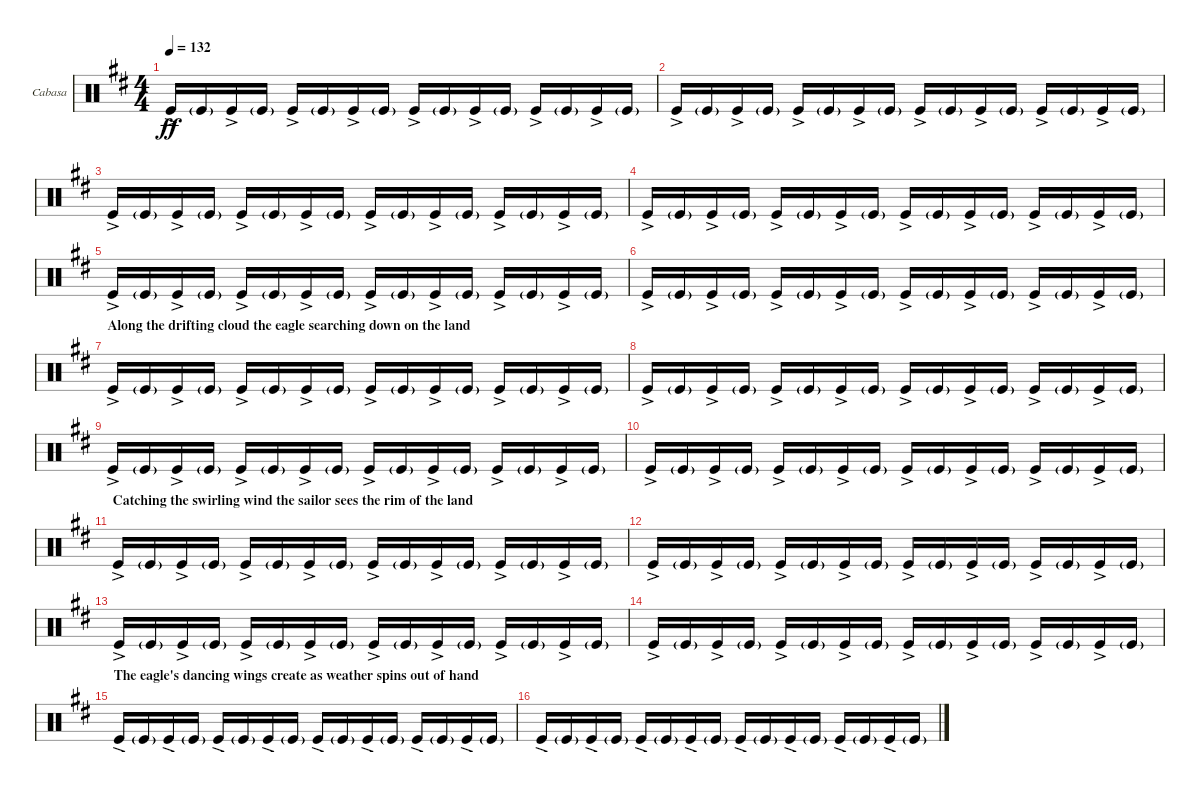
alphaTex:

\bracketExtendMode groupsimilarinstruments
\firstSystemTrackNameOrientation horizontal
\otherSystemsTrackNameOrientation horizontal
\track ("Cabasa" "Cabasa") {instrument percussion}
\staff {score}
\articulation defaults
\ts (4 4)
\tempo 132
\clef neutral
\ks bminor "Kick (hit)"{ac}.16{dy ff} "Kick (hit)"{g}.16 "Kick (hit)"{ac}.16 "Kick (hit)"{g}.16 "Kick (hit)"{ac}.16 "Kick (hit)"{g}.16 "Kick (hit)"{ac}.16 "Kick (hit)"{g}.16 "Kick (hit)"{ac}.16 "Kick (hit)"{g}.16 "Kick (hit)"{ac}.16 "Kick (hit)"{g}.16 "Kick (hit)"{ac}.16 "Kick (hit)"{g}.16 "Kick (hit)"{ac}.16 "Kick (hit)"{g}.16
|
"Kick (hit)"{ac}.16 "Kick (hit)"{g}.16 "Kick (hit)"{ac}.16 "Kick (hit)"{g}.16 "Kick (hit)"{ac}.16 "Kick (hit)"{g}.16 "Kick (hit)"{ac}.16 "Kick (hit)"{g}.16 "Kick (hit)"{ac}.16 "Kick (hit)"{g}.16 "Kick (hit)"{ac}.16 "Kick (hit)"{g}.16 "Kick (hit)"{ac}.16 "Kick (hit)"{g}.16 "Kick (hit)"{ac}.16 "Kick (hit)"{g}.16 |
"Kick (hit)"{ac}.16 "Kick (hit)"{g}.16 "Kick (hit)"{ac}.16 "Kick (hit)"{g}.16 "Kick (hit)"{ac}.16 "Kick (hit)"{g}.16 "Kick (hit)"{ac}.16 "Kick (hit)"{g}.16 "Kick (hit)"{ac}.16 "Kick (hit)"{g}.16 "Kick (hit)"{ac}.16 "Kick (hit)"{g}.16 "Kick (hit)"{ac}.16 "Kick (hit)"{g}.16 "Kick (hit)"{ac}.16 "Kick (hit)"{g}.16 |
"Kick (hit)"{ac}.16 "Kick (hit)"{g}.16 "Kick (hit)"{ac}.16 "Kick (hit)"{g}.16 "Kick (hit)"{ac}.16 "Kick (hit)"{g}.16 "Kick (hit)"{ac}.16 "Kick (hit)"{g}.16 "Kick (hit)"{ac}.16 "Kick (hit)"{g}.16 "Kick (hit)"{ac}.16 "Kick (hit)"{g}.16 "Kick (hit)"{ac}.16 "Kick (hit)"{g}.16 "Kick (hit)"{ac}.16 "Kick (hit)"{g}.16 |
"Kick (hit)"{ac}.16 "Kick (hit)"{g}.16 "Kick (hit)"{ac}.16 "Kick (hit)"{g}.16 "Kick (hit)"{ac}.16 "Kick (hit)"{g}.16 "Kick (hit)"{ac}.16 "Kick (hit)"{g}.16 "Kick (hit)"{ac}.16 "Kick (hit)"{g}.16 "Kick (hit)"{ac}.16 "Kick (hit)"{g}.16 "Kick (hit)"{ac}.16 "Kick (hit)"{g}.16 "Kick (hit)"{ac}.16 "Kick (hit)"{g}.16 |
"Kick (hit)"{ac}.16 "Kick (hit)"{g}.16 "Kick (hit)"{ac}.16 "Kick (hit)"{g}.16 "Kick (hit)"{ac}.16 "Kick (hit)"{g}.16 "Kick (hit)"{ac}.16 "Kick (hit)"{g}.16 "Kick (hit)"{ac}.16 "Kick (hit)"{g}.16 "Kick (hit)"{ac}.16 "Kick (hit)"{g}.16 "Kick (hit)"{ac}.16 "Kick (hit)"{g}.16 "Kick (hit)"{ac}.16 "Kick (hit)"{g}.16 |
\section ("" "Along the drifting cloud the eagle searching down on the land")
"Kick (hit)"{ac}.16 "Kick (hit)"{g}.16 "Kick (hit)"{ac}.16 "Kick (hit)"{g}.16 "Kick (hit)"{ac}.16 "Kick (hit)"{g}.16 "Kick (hit)"{ac}.16 "Kick (hit)"{g}.16 "Kick (hit)"{ac}.16 "Kick (hit)"{g}.16 "Kick (hit)"{ac}.16 "Kick (hit)"{g}.16 "Kick (hit)"{ac}.16 "Kick (hit)"{g}.16 "Kick (hit)"{ac}.16 "Kick (hit)"{g}.16 |
"Kick (hit)"{ac}.16 "Kick (hit)"{g}.16 "Kick (hit)"{ac}.16 "Kick (hit)"{g}.16 "Kick (hit)"{ac}.16 "Kick (hit)"{g}.16 "Kick (hit)"{ac}.16 "Kick (hit)"{g}.16 "Kick (hit)"{ac}.16 "Kick (hit)"{g}.16 "Kick (hit)"{ac}.16 "Kick (hit)"{g}.16 "Kick (hit)"{ac}.16 "Kick (hit)"{g}.16 "Kick (hit)"{ac}.16 "Kick (hit)"{g}.16 |
"Kick (hit)"{ac}.16 "Kick (hit)"{g}.16 "Kick (hit)"{ac}.16 "Kick (hit)"{g}.16 "Kick (hit)"{ac}.16 "Kick (hit)"{g}.16 "Kick (hit)"{ac}.16 "Kick (hit)"{g}.16 "Kick (hit)"{ac}.16 "Kick (hit)"{g}.16 "Kick (hit)"{ac}.16 "Kick (hit)"{g}.16 "Kick (hit)"{ac}.16 "Kick (hit)"{g}.16 "Kick (hit)"{ac}.16 "Kick (hit)"{g}.16 |
"Kick (hit)"{ac}.16 "Kick (hit)"{g}.16 "Kick (hit)"{ac}.16 "Kick (hit)"{g}.16 "Kick (hit)"{ac}.16 "Kick (hit)"{g}.16 "Kick (hit)"{ac}.16 "Kick (hit)"{g}.16 "Kick (hit)"{ac}.16 "Kick (hit)"{g}.16 "Kick (hit)"{ac}.16 "Kick (hit)"{g}.16 "Kick (hit)"{ac}.16 "Kick (hit)"{g}.16 "Kick (hit)"{ac}.16 "Kick (hit)"{g}.16 |
\section ("" "Catching the swirling wind the sailor sees the rim of the land")
"Kick (hit)"{ac}.16 "Kick (hit)"{g}.16 "Kick (hit)"{ac}.16 "Kick (hit)"{g}.16 "Kick (hit)"{ac}.16 "Kick (hit)"{g}.16 "Kick (hit)"{ac}.16 "Kick (hit)"{g}.16 "Kick (hit)"{ac}.16 "Kick (hit)"{g}.16 "Kick (hit)"{ac}.16 "Kick (hit)"{g}.16 "Kick (hit)"{ac}.16 "Kick (hit)"{g}.16 "Kick (hit)"{ac}.16 "Kick (hit)"{g}.16 |
"Kick (hit)"{ac}.16 "Kick (hit)"{g}.16 "Kick (hit)"{ac}.16 "Kick (hit)"{g}.16 "Kick (hit)"{ac}.16 "Kick (hit)"{g}.16 "Kick (hit)"{ac}.16 "Kick (hit)"{g}.16 "Kick (hit)"{ac}.16 "Kick (hit)"{g}.16 "Kick (hit)"{ac}.16 "Kick (hit)"{g}.16 "Kick (hit)"{ac}.16 "Kick (hit)"{g}.16 "Kick (hit)"{ac}.16 "Kick (hit)"{g}.16 |
"Kick (hit)"{ac}.16 "Kick (hit)"{g}.16 "Kick (hit)"{ac}.16 "Kick (hit)"{g}.16 "Kick (hit)"{ac}.16 "Kick (hit)"{g}.16 "Kick (hit)"{ac}.16 "Kick (hit)"{g}.16 "Kick (hit)"{ac}.16 "Kick (hit)"{g}.16 "Kick (hit)"{ac}.16 "Kick (hit)"{g}.16 "Kick (hit)"{ac}.16 "Kick (hit)"{g}.16 "Kick (hit)"{ac}.16 "Kick (hit)"{g}.16 |
"Kick (hit)"{ac}.16 "Kick (hit)"{g}.16 "Kick (hit)"{ac}.16 "Kick (hit)"{g}.16 "Kick (hit)"{ac}.16 "Kick (hit)"{g}.16 "Kick (hit)"{ac}.16 "Kick (hit)"{g}.16 "Kick (hit)"{ac}.16 "Kick (hit)"{g}.16 "Kick (hit)"{ac}.16 "Kick (hit)"{g}.16 "Kick (hit)"{ac}.16 "Kick (hit)"{g}.16 "Kick (hit)"{ac}.16 "Kick (hit)"{g}.16 |
\section ("" "The eagle's dancing wings create as weather spins out of hand")
"Kick (hit)"{ac}.16 "Kick (hit)"{g}.16 "Kick (hit)"{ac}.16 "Kick (hit)"{g}.16 "Kick (hit)"{ac}.16 "Kick (hit)"{g}.16 "Kick (hit)"{ac}.16 "Kick (hit)"{g}.16 "Kick (hit)"{ac}.16 "Kick (hit)"{g}.16 "Kick (hit)"{ac}.16 "Kick (hit)"{g}.16 "Kick (hit)"{ac}.16 "Kick (hit)"{g}.16 "Kick (hit)"{ac}.16 "Kick (hit)"{g}.16 |
"Kick (hit)"{ac}.16 "Kick (hit)"{g}.16 "Kick (hit)"{ac}.16 "Kick (hit)"{g}.16 "Kick (hit)"{ac}.16 "Kick (hit)"{g}.16 "Kick (hit)"{ac}.16 "Kick (hit)"{g}.16 "Kick (hit)"{ac}.16 "Kick (hit)"{g}.16 "Kick (hit)"{ac}.16 "Kick (hit)"{g}.16 "Kick (hit)"{ac}.16 "Kick (hit)"{g}.16 "Kick (hit)"{ac}.16 "Kick (hit)"{g}.16
